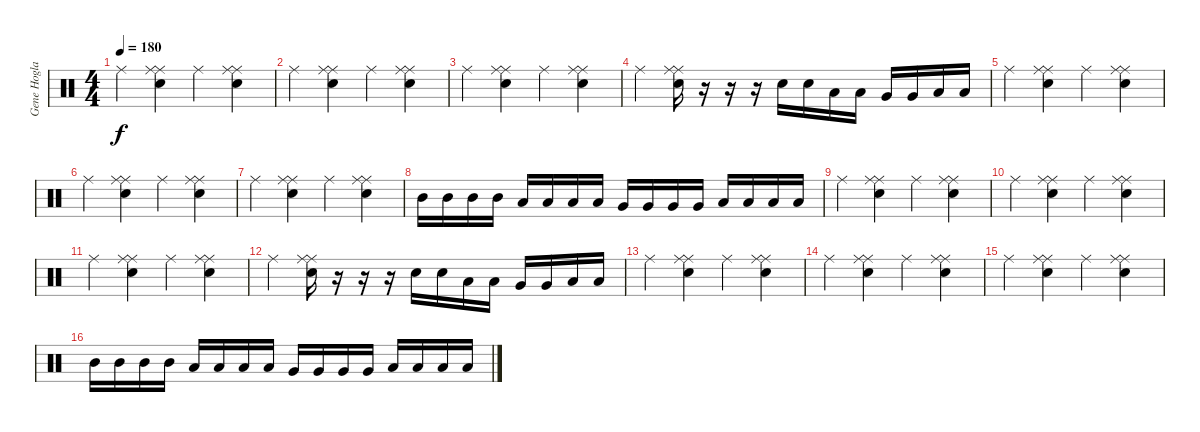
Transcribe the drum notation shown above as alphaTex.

\track ("Gene Hoglan" "Gene Hogla") {instrument percussion}
\staff {score}
\articulation defaults
\ts (4 4)
\tempo 180
\clef neutral
\ks c "Ride (middle)".4{dy f}
("Ride (middle)" "Ride (middle)" "Snare (hit) 2").4 "Ride (middle)".4 ("Ride (middle)" "Ride (middle)" "Snare (hit) 2").4 |
"Ride (middle)".4 ("Ride (middle)" "Ride (middle)" "Snare (hit) 2").4 "Ride (middle)".4 ("Ride (middle)" "Ride (middle)" "Snare (hit) 2").4 |
"Ride (middle)".4 ("Ride (middle)" "Ride (middle)" "Snare (hit) 2").4 "Ride (middle)".4 ("Ride (middle)" "Ride (middle)" "Snare (hit) 2").4 |
"Ride (middle)".4 ("Ride (middle)" "Ride (middle)" "Snare (hit) 2").16 r.16 r.16 r.16 "Snare (hit) 2".16 "Snare (hit) 2".16 "Low Tom (hit)".16 "Low Tom (hit)".16 "Very Low Tom (hit)".16 "Very Low Tom (hit)".16 "Low Floor Tom (hit)".16 "Low Floor Tom (hit)".16 |
"Ride (middle)".4 ("Ride (middle)" "Ride (middle)" "Snare (hit) 2").4 "Ride (middle)".4 ("Ride (middle)" "Ride (middle)" "Snare (hit) 2").4 |
"Ride (middle)".4 ("Ride (middle)" "Ride (middle)" "Snare (hit) 2").4 "Ride (middle)".4 ("Ride (middle)" "Ride (middle)" "Snare (hit) 2").4 |
"Ride (middle)".4 ("Ride (middle)" "Ride (middle)" "Snare (hit) 2").4 "Ride (middle)".4 ("Ride (middle)" "Ride (middle)" "Snare (hit) 2").4 |
"Mid Tom (hit)".16 "Mid Tom (hit)".16 "Mid Tom (hit)".16 "Mid Tom (hit)".16 "Low Tom (hit)".16 "Low Tom (hit)".16 "Low Tom (hit)".16 "Low Tom (hit)".16 "Very Low Tom (hit)".16 "Very Low Tom (hit)".16 "Very Low Tom (hit)".16 "Very Low Tom (hit)".16 "Low Floor Tom (hit)".16 "Low Floor Tom (hit)".16 "Low Floor Tom (hit)".16 "Low Floor Tom (hit)".16 |
"Ride (middle)".4 ("Ride (middle)" "Ride (middle)" "Snare (hit) 2").4 "Ride (middle)".4 ("Ride (middle)" "Ride (middle)" "Snare (hit) 2").4 |
"Ride (middle)".4 ("Ride (middle)" "Ride (middle)" "Snare (hit) 2").4 "Ride (middle)".4 ("Ride (middle)" "Ride (middle)" "Snare (hit) 2").4 |
"Ride (middle)".4 ("Ride (middle)" "Ride (middle)" "Snare (hit) 2").4 "Ride (middle)".4 ("Ride (middle)" "Ride (middle)" "Snare (hit) 2").4 |
"Ride (middle)".4 ("Ride (middle)" "Ride (middle)" "Snare (hit) 2").16 r.16 r.16 r.16 "Snare (hit) 2".16 "Snare (hit) 2".16 "Low Tom (hit)".16 "Low Tom (hit)".16 "Very Low Tom (hit)".16 "Very Low Tom (hit)".16 "Low Floor Tom (hit)".16 "Low Floor Tom (hit)".16 |
"Ride (middle)".4 ("Ride (middle)" "Ride (middle)" "Snare (hit) 2").4 "Ride (middle)".4 ("Ride (middle)" "Ride (middle)" "Snare (hit) 2").4 |
"Ride (middle)".4 ("Ride (middle)" "Ride (middle)" "Snare (hit) 2").4 "Ride (middle)".4 ("Ride (middle)" "Ride (middle)" "Snare (hit) 2").4 |
"Ride (middle)".4 ("Ride (middle)" "Ride (middle)" "Snare (hit) 2").4 "Ride (middle)".4 ("Ride (middle)" "Ride (middle)" "Snare (hit) 2").4 |
"Mid Tom (hit)".16 "Mid Tom (hit)".16 "Mid Tom (hit)".16 "Mid Tom (hit)".16 "Low Tom (hit)".16 "Low Tom (hit)".16 "Low Tom (hit)".16 "Low Tom (hit)".16 "Very Low Tom (hit)".16 "Very Low Tom (hit)".16 "Very Low Tom (hit)".16 "Very Low Tom (hit)".16 "Low Floor Tom (hit)".16 "Low Floor Tom (hit)".16 "Low Floor Tom (hit)".16 "Low Floor Tom (hit)".16
